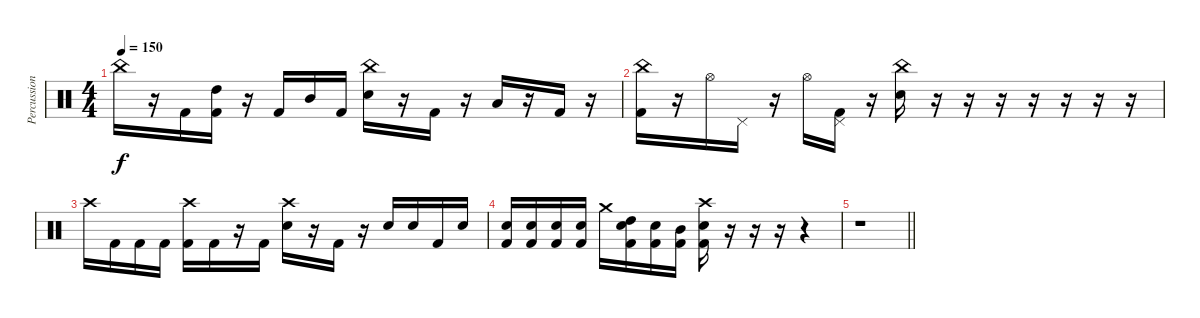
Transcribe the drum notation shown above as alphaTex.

\track ("Percussion" "Percussion") {instrument percussion}
\staff {score}
\articulation defaults
\ts (4 4)
\tempo 150
\clef neutral
\ks c "China (hit)".16{dy f}
r.16 "Kick (hit) 2".16 ("High Tom (hit)" "Kick (hit) 2").16 r.16 "Kick (hit) 2".16 "Mid Tom (hit)".16 "Kick (hit) 2".16 ("China (hit)" "Electric Snare (hit)").16 r.16 "Kick (hit) 2".16 r.16 "Low Tom (hit)".16 r.16 "Kick (hit) 2".16 r.16 |
("China (hit)" "Kick (hit) 2").16 r.16 "Hi-Hat (open)".16 "Pedal Hi-Hat (hit)".16 r.16 "Hi-Hat (open)".16 ("Pedal Hi-Hat (hit)" "Kick (hit) 2").16 r.16 ("China (hit)" "Electric Snare (hit)").16 r.16 r.16 r.16 r.16 r.16 r.16 r.16 |
"Crash high (hit)".16 "Kick (hit) 2".16 "Kick (hit) 2".16 "Kick (hit) 2".16 ("Crash high (hit)" "Kick (hit) 2").16 "Kick (hit) 2".16 r.16 "Kick (hit) 2".16 ("Crash high (hit)" "Electric Snare (hit)").16 r.16 "Kick (hit) 2".16 r.16 "Electric Snare (hit)".16 "Electric Snare (hit)".16 "Kick (hit) 2".16 "Electric Snare (hit)".16 |
("Electric Snare (hit)" "Kick (hit) 2").16 ("Electric Snare (hit)" "Kick (hit) 2").16 ("Electric Snare (hit)" "Kick (hit) 2").16 ("Electric Snare (hit)" "Kick (hit) 2").16 "Crash medium (hit)".16 ("High Tom (hit)" "Electric Snare (hit)" "Kick (hit) 2").16 ("Electric Snare (hit)" "Kick (hit) 2").16 ("Mid Tom (hit)" "Kick (hit) 2").16 ("Crash high (hit)" "Electric Snare (hit)" "Kick (hit) 2").16 r.16 r.16 r.16 r.4 |
\barLineRight lightlight
r.1
